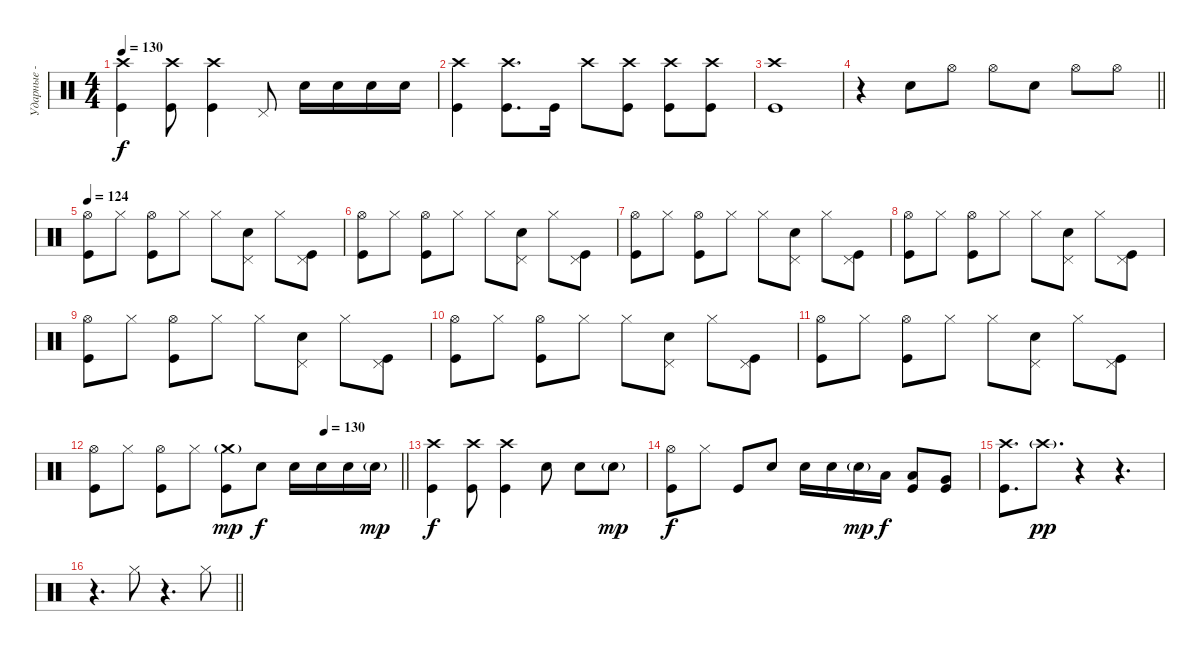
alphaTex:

\track ("Ударные - Джек Уайт" "Ударные - ") {instrument percussion}
\staff {score}
\articulation defaults
\ts (4 4)
\tempo 130
\clef neutral
\ks c
("Crash high (hit)" "Kick (hit)").4{dy f} ("Crash high (hit)" "Kick (hit)").8 ("Crash high (hit)" "Kick (hit)").4 "Pedal Hi-Hat (hit)".8 "Snare (hit) 2".16 "Snare (hit) 2".16 "Snare (hit) 2".16 "Snare (hit) 2".16 |
("Crash high (hit)" "Kick (hit)").4 ("Crash high (hit)" "Kick (hit)").8{d} "Kick (hit)".16 "Crash high (hit)".8 ("Crash high (hit)" "Kick (hit)").8 ("Crash high (hit)" "Kick (hit)").8 ("Crash high (hit)" "Kick (hit)").8 |
("Crash high (hit)" "Kick (hit)").1 |
\barLineRight lightlight
r.4 "Electric Snare (hit)".8 "Hi-Hat (open)".8 "Hi-Hat (open)".8 "Electric Snare (hit)".8 "Hi-Hat (open)".8 "Hi-Hat (open)".8 |
\tempo 124
("Hi-Hat (open)" "Kick (hit)").8 "Hi-Hat (closed)".8 ("Hi-Hat (open)" "Kick (hit)").8 "Hi-Hat (closed)".8 "Hi-Hat (closed)".8 ("Pedal Hi-Hat (hit)" "Electric Snare (hit)").8 "Hi-Hat (closed)".8 ("Pedal Hi-Hat (hit)" "Kick (hit)").8 |
("Hi-Hat (open)" "Kick (hit)").8 "Hi-Hat (closed)".8 ("Hi-Hat (open)" "Kick (hit)").8 "Hi-Hat (closed)".8 "Hi-Hat (closed)".8 ("Pedal Hi-Hat (hit)" "Electric Snare (hit)").8 "Hi-Hat (closed)".8 ("Pedal Hi-Hat (hit)" "Kick (hit)").8 |
("Hi-Hat (open)" "Kick (hit)").8 "Hi-Hat (closed)".8 ("Hi-Hat (open)" "Kick (hit)").8 "Hi-Hat (closed)".8 "Hi-Hat (closed)".8 ("Pedal Hi-Hat (hit)" "Electric Snare (hit)").8 "Hi-Hat (closed)".8 ("Pedal Hi-Hat (hit)" "Kick (hit)").8 |
("Hi-Hat (open)" "Kick (hit)").8 "Hi-Hat (closed)".8 ("Hi-Hat (open)" "Kick (hit)").8 "Hi-Hat (closed)".8 "Hi-Hat (closed)".8 ("Pedal Hi-Hat (hit)" "Electric Snare (hit)").8 "Hi-Hat (closed)".8 ("Pedal Hi-Hat (hit)" "Kick (hit)").8 |
("Hi-Hat (open)" "Kick (hit)").8 "Hi-Hat (closed)".8 ("Hi-Hat (open)" "Kick (hit)").8 "Hi-Hat (closed)".8 "Hi-Hat (closed)".8 ("Pedal Hi-Hat (hit)" "Electric Snare (hit)").8 "Hi-Hat (closed)".8 ("Pedal Hi-Hat (hit)" "Kick (hit)").8 |
("Hi-Hat (open)" "Kick (hit)").8 "Hi-Hat (closed)".8 ("Hi-Hat (open)" "Kick (hit)").8 "Hi-Hat (closed)".8 "Hi-Hat (closed)".8 ("Pedal Hi-Hat (hit)" "Electric Snare (hit)").8 "Hi-Hat (closed)".8 ("Pedal Hi-Hat (hit)" "Kick (hit)").8 |
("Hi-Hat (open)" "Kick (hit)").8 "Hi-Hat (closed)".8 ("Hi-Hat (open)" "Kick (hit)").8 "Hi-Hat (closed)".8 "Hi-Hat (closed)".8 ("Pedal Hi-Hat (hit)" "Electric Snare (hit)").8 "Hi-Hat (closed)".8 ("Pedal Hi-Hat (hit)" "Kick (hit)").8 |
\tempo (130 0.75)
\barLineRight lightlight
("Hi-Hat (open)" "Kick (hit)").8 "Hi-Hat (closed)".8 ("Hi-Hat (open)" "Kick (hit)").8 "Hi-Hat (closed)".8 ("Crash medium (hit)"{g} "Kick (hit)").8{dy mp} "Snare (hit) 2".8{dy f} "Snare (hit) 2".16 "Snare (hit) 2".16 "Snare (hit) 2".16 "Snare (hit) 2"{g}.16{dy mp} |
("Crash high (hit)" "Kick (hit)").4{dy f} ("Crash high (hit)" "Kick (hit)").8 ("Crash high (hit)" "Kick (hit)").4 "Snare (hit) 2".8 "Electric Snare (hit)".8 "Electric Snare (hit)"{g}.8{dy mp} |
("Hi-Hat (open)" "Kick (hit)").8{dy f} "Hi-Hat (closed)".8 "Kick (hit)".8 "Electric Snare (hit)".8 "Snare (hit) 2".16 "Snare (hit) 2".16 "Snare (hit) 2"{g}.16{dy mp} "Low Tom (hit)".16{dy f} ("Low Tom (hit)" "Kick (hit)").8 ("Very Low Tom (hit)" "Kick (hit)").8 |
("Crash high (hit)" "Kick (hit)").8{d} "Crash high (hit)"{g}.8{d dy pp} r.4 r.4{d} |
\barLineRight lightlight
r.4{d} "Hi-Hat (closed)".8 r.4{d} "Hi-Hat (closed)".8
